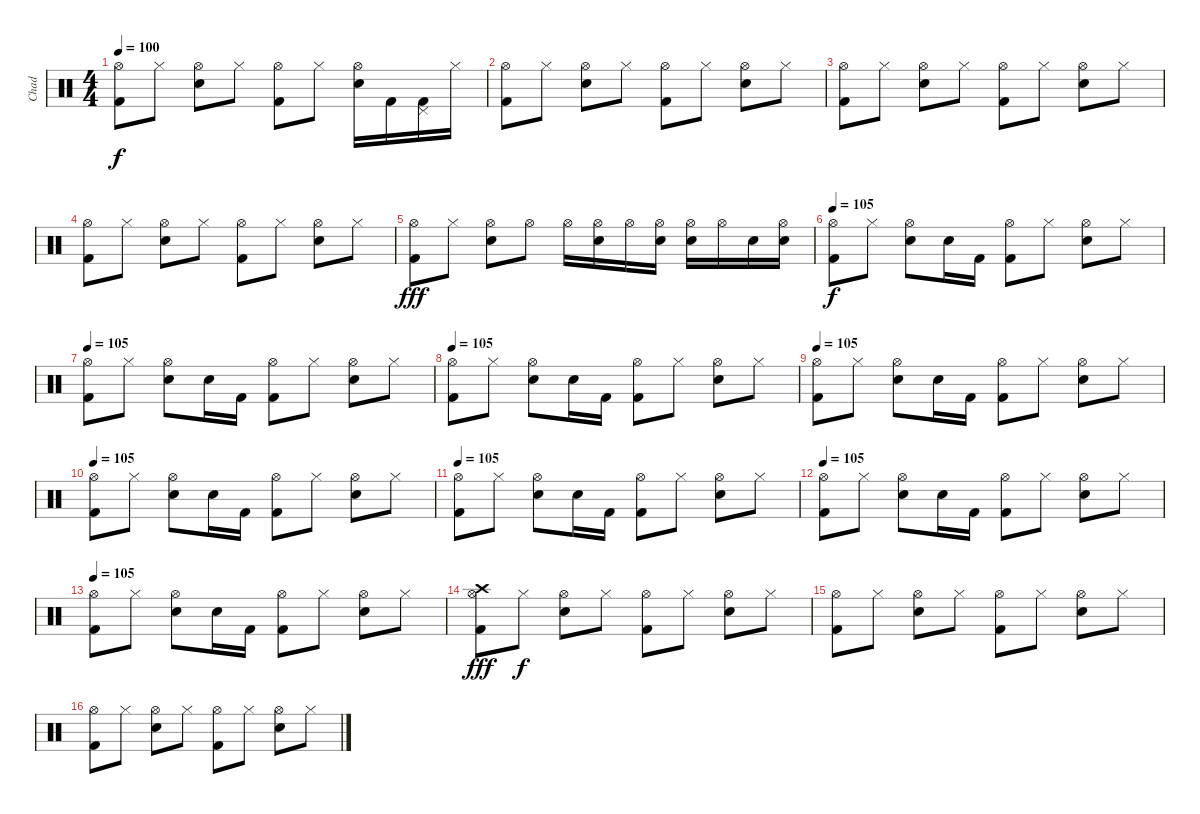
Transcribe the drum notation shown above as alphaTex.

\track ("Chad" "Chad") {instrument percussion}
\staff {score}
\articulation defaults
\ts (4 4)
\tempo 100
\clef neutral
\ks c
("Hi-Hat (open)" "Kick (hit) 2").8{dy f} "Hi-Hat (closed)".8 ("Hi-Hat (open)" "Electric Snare (hit)").8 "Hi-Hat (closed)".8 ("Hi-Hat (open)" "Kick (hit) 2").8 "Hi-Hat (closed)".8 ("Hi-Hat (open)" "Electric Snare (hit)").16 "Kick (hit) 2".16 ("Pedal Hi-Hat (hit)" "Kick (hit) 2").16 "Hi-Hat (closed)".16 |
("Hi-Hat (open)" "Kick (hit) 2").8 "Hi-Hat (closed)".8 ("Hi-Hat (open)" "Electric Snare (hit)").8 "Hi-Hat (closed)".8 ("Hi-Hat (open)" "Kick (hit) 2").8 "Hi-Hat (closed)".8 ("Hi-Hat (open)" "Electric Snare (hit)").8 "Hi-Hat (closed)".8 |
("Hi-Hat (open)" "Kick (hit) 2").8 "Hi-Hat (closed)".8 ("Hi-Hat (open)" "Electric Snare (hit)").8 "Hi-Hat (closed)".8 ("Hi-Hat (open)" "Kick (hit) 2").8 "Hi-Hat (closed)".8 ("Hi-Hat (open)" "Electric Snare (hit)").8 "Hi-Hat (closed)".8 |
("Hi-Hat (open)" "Kick (hit) 2").8 "Hi-Hat (closed)".8 ("Hi-Hat (open)" "Electric Snare (hit)").8 "Hi-Hat (closed)".8 ("Hi-Hat (open)" "Kick (hit) 2").8 "Hi-Hat (closed)".8 ("Hi-Hat (open)" "Electric Snare (hit)").8 "Hi-Hat (closed)".8 |
("Hi-Hat (open)" "Kick (hit) 2").8{dy fff} "Hi-Hat (closed)".8 ("Hi-Hat (open)" "Electric Snare (hit)").8 "Hi-Hat (open)".8 "Hi-Hat (open)".16 ("Hi-Hat (open)" "Electric Snare (hit)").16 "Hi-Hat (open)".16 ("Hi-Hat (open)" "Electric Snare (hit)").16 ("Hi-Hat (open)" "Electric Snare (hit)").16 "Hi-Hat (open)".16 "Electric Snare (hit)".16 ("Hi-Hat (open)" "Electric Snare (hit)").16 |
\tempo 105
("Hi-Hat (open)" "Kick (hit) 2").8{dy f} "Hi-Hat (closed)".8 ("Hi-Hat (open)" "Electric Snare (hit)").8 "Electric Snare (hit)".16 "Kick (hit) 2".16 ("Hi-Hat (open)" "Kick (hit) 2").8 "Hi-Hat (closed)".8 ("Hi-Hat (open)" "Electric Snare (hit)").8 "Hi-Hat (closed)".8 |
\tempo 105
("Hi-Hat (open)" "Kick (hit) 2").8 "Hi-Hat (closed)".8 ("Hi-Hat (open)" "Electric Snare (hit)").8 "Electric Snare (hit)".16 "Kick (hit) 2".16 ("Hi-Hat (open)" "Kick (hit) 2").8 "Hi-Hat (closed)".8 ("Hi-Hat (open)" "Electric Snare (hit)").8 "Hi-Hat (closed)".8 |
\tempo 105
("Hi-Hat (open)" "Kick (hit) 2").8 "Hi-Hat (closed)".8 ("Hi-Hat (open)" "Electric Snare (hit)").8 "Electric Snare (hit)".16 "Kick (hit) 2".16 ("Hi-Hat (open)" "Kick (hit) 2").8 "Hi-Hat (closed)".8 ("Hi-Hat (open)" "Electric Snare (hit)").8 "Hi-Hat (closed)".8 |
\tempo 105
("Hi-Hat (open)" "Kick (hit) 2").8 "Hi-Hat (closed)".8 ("Hi-Hat (open)" "Electric Snare (hit)").8 "Electric Snare (hit)".16 "Kick (hit) 2".16 ("Hi-Hat (open)" "Kick (hit) 2").8 "Hi-Hat (closed)".8 ("Hi-Hat (open)" "Electric Snare (hit)").8 "Hi-Hat (closed)".8 |
\tempo 105
("Hi-Hat (open)" "Kick (hit) 2").8 "Hi-Hat (closed)".8 ("Hi-Hat (open)" "Electric Snare (hit)").8 "Electric Snare (hit)".16 "Kick (hit) 2".16 ("Hi-Hat (open)" "Kick (hit) 2").8 "Hi-Hat (closed)".8 ("Hi-Hat (open)" "Electric Snare (hit)").8 "Hi-Hat (closed)".8 |
\tempo 105
("Hi-Hat (open)" "Kick (hit) 2").8 "Hi-Hat (closed)".8 ("Hi-Hat (open)" "Electric Snare (hit)").8 "Electric Snare (hit)".16 "Kick (hit) 2".16 ("Hi-Hat (open)" "Kick (hit) 2").8 "Hi-Hat (closed)".8 ("Hi-Hat (open)" "Electric Snare (hit)").8 "Hi-Hat (closed)".8 |
\tempo 105
("Hi-Hat (open)" "Kick (hit) 2").8 "Hi-Hat (closed)".8 ("Hi-Hat (open)" "Electric Snare (hit)").8 "Electric Snare (hit)".16 "Kick (hit) 2".16 ("Hi-Hat (open)" "Kick (hit) 2").8 "Hi-Hat (closed)".8 ("Hi-Hat (open)" "Electric Snare (hit)").8 "Hi-Hat (closed)".8 |
\tempo 105
("Hi-Hat (open)" "Kick (hit) 2").8 "Hi-Hat (closed)".8 ("Hi-Hat (open)" "Electric Snare (hit)").8 "Electric Snare (hit)".16 "Kick (hit) 2".16 ("Hi-Hat (open)" "Kick (hit) 2").8 "Hi-Hat (closed)".8 ("Hi-Hat (open)" "Electric Snare (hit)").8 "Hi-Hat (closed)".8 |
("Crash high (hit)" "Hi-Hat (open)" "Kick (hit) 2").8{dy fff} "Hi-Hat (closed)".8{dy f} ("Hi-Hat (open)" "Electric Snare (hit)").8 "Hi-Hat (closed)".8 ("Hi-Hat (open)" "Kick (hit) 2").8 "Hi-Hat (closed)".8 ("Hi-Hat (open)" "Electric Snare (hit)").8 "Hi-Hat (closed)".8 |
("Hi-Hat (open)" "Kick (hit) 2").8 "Hi-Hat (closed)".8 ("Hi-Hat (open)" "Electric Snare (hit)").8 "Hi-Hat (closed)".8 ("Hi-Hat (open)" "Kick (hit) 2").8 "Hi-Hat (closed)".8 ("Hi-Hat (open)" "Electric Snare (hit)").8 "Hi-Hat (closed)".8 |
("Hi-Hat (open)" "Kick (hit) 2").8 "Hi-Hat (closed)".8 ("Hi-Hat (open)" "Electric Snare (hit)").8 "Hi-Hat (closed)".8 ("Hi-Hat (open)" "Kick (hit) 2").8 "Hi-Hat (closed)".8 ("Hi-Hat (open)" "Electric Snare (hit)").8 "Hi-Hat (closed)".8
